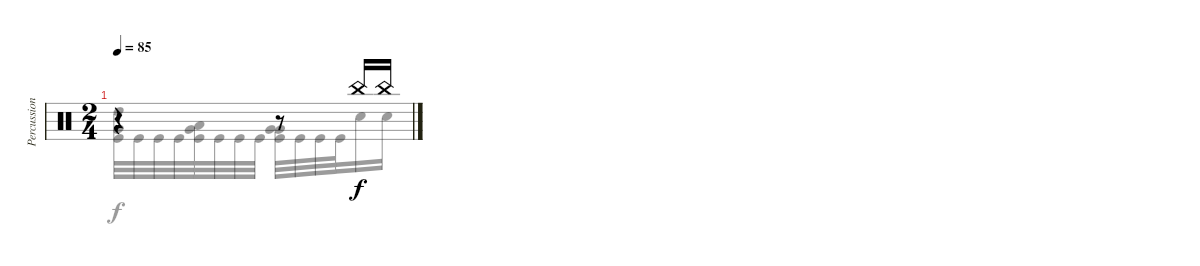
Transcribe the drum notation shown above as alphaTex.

\track ("Percussions" "Percussion") {instrument percussion}
\staff {score}
\articulation defaults
\voice
\ts (2 4)
\tempo 85
\clef neutral
\ks c
r.4{dy f} r.8 "China (hit)".16 "China (hit)".16
\voice
\clef neutral
\ottava regular
\simile none
\ks c
("High Tom (hit)" "Very Low Tom (hit)" "Kick (hit)").32{dy f} "Kick (hit)".32 "Kick (hit)".32 "Kick (hit)".32 ("Low Tom (hit)" "Very Low Tom (hit)" "Kick (hit)").32 "Kick (hit)".32 "Kick (hit)".32 "Kick (hit)".32 ("Very Low Tom (hit)" "Very Low Tom (hit)" "Kick (hit)").32 "Kick (hit)".32 "Kick (hit)".32 "Kick (hit)".32 "Snare (hit) 2".16 "Snare (hit) 2".16
